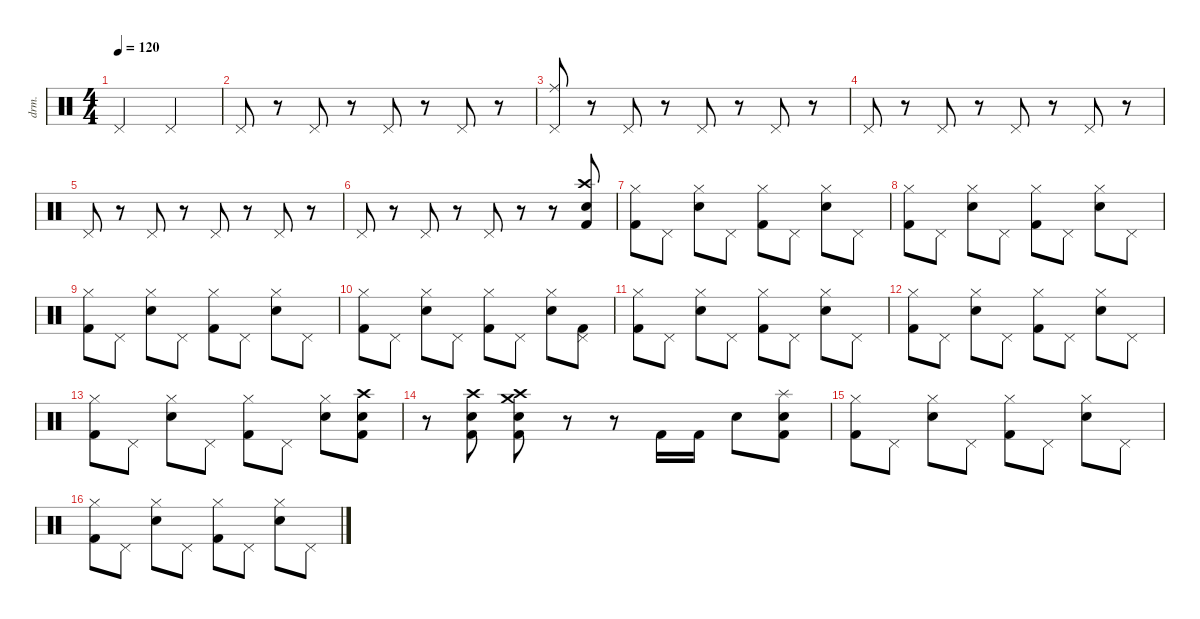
\defaultSystemsLayout 4
\hideDynamics
\bracketExtendMode nobrackets
\otherSystemsTrackNameOrientation horizontal
\track ("Percussion" "drm.") {instrument percussion}
\staff {score}
\articulation defaults
\ts (4 4)
\tempo 120
\clef neutral
\ks c "Pedal Hi-Hat (hit)".2{dy f beam Up} "Pedal Hi-Hat (hit)".2{beam Up}
|
"Pedal Hi-Hat (hit)".8{beam Up} r.8{beam Up} "Pedal Hi-Hat (hit)".8{beam Up} r.8{beam Up} "Pedal Hi-Hat (hit)".8{beam Up} r.8{beam Up} "Pedal Hi-Hat (hit)".8{beam Up} r.8{beam Up} |
("Pedal Hi-Hat (hit)" "Ride (middle)").8{beam Up} r.8{beam Up} "Pedal Hi-Hat (hit)".8{beam Up} r.8{beam Up} "Pedal Hi-Hat (hit)".8{beam Up} r.8{beam Up} "Pedal Hi-Hat (hit)".8{beam Up} r.8{beam Up} |
"Pedal Hi-Hat (hit)".8{beam Up} r.8{beam Up} "Pedal Hi-Hat (hit)".8{beam Up} r.8{beam Up} "Pedal Hi-Hat (hit)".8{beam Up} r.8{beam Up} "Pedal Hi-Hat (hit)".8{beam Up} r.8{beam Up} |
"Pedal Hi-Hat (hit)".8{beam Up} r.8{beam Up} "Pedal Hi-Hat (hit)".8{beam Up} r.8{beam Up} "Pedal Hi-Hat (hit)".8{beam Up} r.8{beam Up} "Pedal Hi-Hat (hit)".8{beam Up} r.8{beam Up} |
"Pedal Hi-Hat (hit)".8{beam Up} r.8{beam Up} "Pedal Hi-Hat (hit)".8{beam Up} r.8{beam Up} "Pedal Hi-Hat (hit)".8{beam Up} r.8{beam Up} r.8{beam Up} ("Kick (hit) 2" "Snare (hit) 2" "Crash high (hit)").8{beam Down} |
("Kick (hit) 2" "Hi-Hat (closed)").8{beam Down} "Pedal Hi-Hat (hit)".8{beam Down} ("Snare (hit) 2" "Hi-Hat (closed)").8{beam Down} "Pedal Hi-Hat (hit)".8{beam Down} ("Kick (hit) 2" "Hi-Hat (closed)").8{beam Down} "Pedal Hi-Hat (hit)".8{beam Down} ("Snare (hit) 2" "Hi-Hat (closed)").8{beam Down} "Pedal Hi-Hat (hit)".8{beam Down} |
("Kick (hit) 2" "Hi-Hat (closed)").8{beam Down} "Pedal Hi-Hat (hit)".8{beam Down} ("Snare (hit) 2" "Hi-Hat (closed)").8{beam Down} "Pedal Hi-Hat (hit)".8{beam Down} ("Kick (hit) 2" "Hi-Hat (closed)").8{beam Down} "Pedal Hi-Hat (hit)".8{beam Down} ("Snare (hit) 2" "Hi-Hat (closed)").8{beam Down} "Pedal Hi-Hat (hit)".8{beam Down} |
("Kick (hit) 2" "Hi-Hat (closed)").8{beam Down} "Pedal Hi-Hat (hit)".8{beam Down} ("Snare (hit) 2" "Hi-Hat (closed)").8{beam Down} "Pedal Hi-Hat (hit)".8{beam Down} ("Kick (hit) 2" "Hi-Hat (closed)").8{beam Down} "Pedal Hi-Hat (hit)".8{beam Down} ("Snare (hit) 2" "Hi-Hat (closed)").8{beam Down} "Pedal Hi-Hat (hit)".8{beam Down} |
("Kick (hit) 2" "Hi-Hat (closed)").8{beam Down} "Pedal Hi-Hat (hit)".8{beam Down} ("Snare (hit) 2" "Hi-Hat (closed)").8{beam Down} "Pedal Hi-Hat (hit)".8{beam Down} ("Kick (hit) 2" "Hi-Hat (closed)").8{beam Down} "Pedal Hi-Hat (hit)".8{beam Down} ("Snare (hit) 2" "Hi-Hat (closed)").8{beam Down} ("Pedal Hi-Hat (hit)" "Kick (hit) 2").8{beam Down} |
("Kick (hit) 2" "Hi-Hat (closed)").8{beam Down} "Pedal Hi-Hat (hit)".8{beam Down} ("Snare (hit) 2" "Hi-Hat (closed)").8{beam Down} "Pedal Hi-Hat (hit)".8{beam Down} ("Kick (hit) 2" "Hi-Hat (closed)").8{beam Down} "Pedal Hi-Hat (hit)".8{beam Down} ("Snare (hit) 2" "Hi-Hat (closed)").8{beam Down} "Pedal Hi-Hat (hit)".8{beam Down} |
("Kick (hit) 2" "Hi-Hat (closed)").8{beam Down} "Pedal Hi-Hat (hit)".8{beam Down} ("Snare (hit) 2" "Hi-Hat (closed)").8{beam Down} "Pedal Hi-Hat (hit)".8{beam Down} ("Kick (hit) 2" "Hi-Hat (closed)").8{beam Down} "Pedal Hi-Hat (hit)".8{beam Down} ("Snare (hit) 2" "Hi-Hat (closed)").8{beam Down} "Pedal Hi-Hat (hit)".8{beam Down} |
("Kick (hit) 2" "Hi-Hat (closed)").8{beam Down} "Pedal Hi-Hat (hit)".8{beam Down} ("Snare (hit) 2" "Hi-Hat (closed)").8{beam Down} "Pedal Hi-Hat (hit)".8{beam Down} ("Kick (hit) 2" "Hi-Hat (closed)").8{beam Down} "Pedal Hi-Hat (hit)".8{beam Down} ("Snare (hit) 2" "Hi-Hat (closed)").8{beam Down} ("Kick (hit) 2" "Snare (hit) 2" "Crash high (hit)").8{beam Down} |
r.8{beam Down} ("Kick (hit) 2" "Snare (hit) 2" "Crash high (hit)").8{beam Down} ("Kick (hit) 2" "Snare (hit) 2" "Crash high (hit)" "Crash medium (hit)").8{beam Down} r.8{beam Down} r.8{beam Down} "Kick (hit) 2".16{beam Up} "Kick (hit) 2".16{beam Up} "Snare (hit) 2".8{beam Down} ("Snare (hit) 2" "Kick (hit) 2" "Splash (hit)").8{beam Down} |
("Kick (hit) 2" "Hi-Hat (closed)").8{beam Down} "Pedal Hi-Hat (hit)".8{beam Down} ("Snare (hit) 2" "Hi-Hat (closed)").8{beam Down} "Pedal Hi-Hat (hit)".8{beam Down} ("Kick (hit) 2" "Hi-Hat (closed)").8{beam Down} "Pedal Hi-Hat (hit)".8{beam Down} ("Snare (hit) 2" "Hi-Hat (closed)").8{beam Down} "Pedal Hi-Hat (hit)".8{beam Down} |
("Kick (hit) 2" "Hi-Hat (closed)").8{beam Down} "Pedal Hi-Hat (hit)".8{beam Down} ("Snare (hit) 2" "Hi-Hat (closed)").8{beam Down} "Pedal Hi-Hat (hit)".8{beam Down} ("Kick (hit) 2" "Hi-Hat (closed)").8{beam Down} "Pedal Hi-Hat (hit)".8{beam Down} ("Snare (hit) 2" "Hi-Hat (closed)").8{beam Down} "Pedal Hi-Hat (hit)".8{beam Down}
